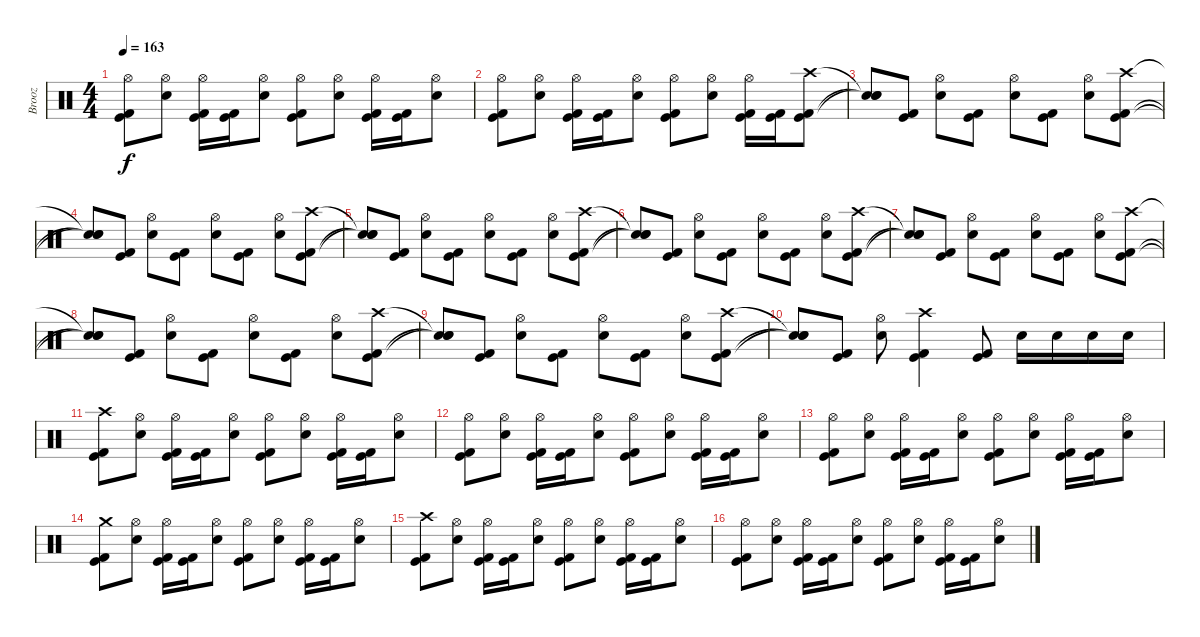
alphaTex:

\track ("Brooz" "Brooz") {instrument percussion}
\staff {score}
\articulation defaults
\ts (4 4)
\tempo 163
\clef neutral
\ks c
("Kick (hit) 2" "Kick (hit)" "Hi-Hat (open)").8{dy f} ("Snare (hit) 2" "Hi-Hat (open)").8 ("Hi-Hat (open)" "Kick (hit) 2" "Kick (hit)").16 ("Kick (hit) 2" "Kick (hit)").16 ("Hi-Hat (open)" "Snare (hit) 2").8 ("Kick (hit) 2" "Kick (hit)" "Hi-Hat (open)").8 ("Snare (hit) 2" "Hi-Hat (open)").8 ("Hi-Hat (open)" "Kick (hit) 2" "Kick (hit)").16 ("Kick (hit) 2" "Kick (hit)").16 ("Hi-Hat (open)" "Snare (hit) 2").8 |
("Kick (hit) 2" "Kick (hit)" "Hi-Hat (open)").8 ("Snare (hit) 2" "Hi-Hat (open)").8 ("Hi-Hat (open)" "Kick (hit) 2" "Kick (hit)").16 ("Kick (hit) 2" "Kick (hit)").16 ("Hi-Hat (open)" "Snare (hit) 2").8 ("Kick (hit) 2" "Kick (hit)" "Hi-Hat (open)").8 ("Snare (hit) 2" "Hi-Hat (open)").8 ("Hi-Hat (open)" "Kick (hit) 2" "Kick (hit)").16 ("Kick (hit) 2" "Kick (hit)").16 ("Kick (hit) 2" "Kick (hit)" "Crash high (hit)").8 |
("Snare (hit)"{t} "Snare (hit)"{t} "Snare (hit)"{t}).8 ("Kick (hit) 2" "Kick (hit)").8 ("Snare (hit) 2" "Hi-Hat (open)").8 ("Kick (hit) 2" "Kick (hit)").8 ("Hi-Hat (open)" "Snare (hit) 2").8 ("Kick (hit) 2" "Kick (hit)").8 ("Snare (hit) 2" "Hi-Hat (open)").8 ("Kick (hit) 2" "Kick (hit)" "Crash high (hit)").8 |
("Snare (hit)"{t} "Snare (hit)"{t} "Snare (hit)"{t}).8 ("Kick (hit) 2" "Kick (hit)").8 ("Snare (hit) 2" "Hi-Hat (open)").8 ("Kick (hit) 2" "Kick (hit)").8 ("Hi-Hat (open)" "Snare (hit) 2").8 ("Kick (hit) 2" "Kick (hit)").8 ("Snare (hit) 2" "Hi-Hat (open)").8 ("Kick (hit) 2" "Kick (hit)" "Crash high (hit)").8 |
("Snare (hit)"{t} "Snare (hit)"{t} "Snare (hit)"{t}).8 ("Kick (hit) 2" "Kick (hit)").8 ("Snare (hit) 2" "Hi-Hat (open)").8 ("Kick (hit) 2" "Kick (hit)").8 ("Hi-Hat (open)" "Snare (hit) 2").8 ("Kick (hit) 2" "Kick (hit)").8 ("Snare (hit) 2" "Hi-Hat (open)").8 ("Kick (hit) 2" "Kick (hit)" "Crash high (hit)").8 |
("Snare (hit)"{t} "Snare (hit)"{t} "Snare (hit)"{t}).8 ("Kick (hit) 2" "Kick (hit)").8 ("Snare (hit) 2" "Hi-Hat (open)").8 ("Kick (hit) 2" "Kick (hit)").8 ("Hi-Hat (open)" "Snare (hit) 2").8 ("Kick (hit) 2" "Kick (hit)").8 ("Snare (hit) 2" "Hi-Hat (open)").8 ("Kick (hit) 2" "Kick (hit)" "Crash high (hit)").8 |
("Snare (hit)"{t} "Snare (hit)"{t} "Snare (hit)"{t}).8 ("Kick (hit) 2" "Kick (hit)").8 ("Snare (hit) 2" "Hi-Hat (open)").8 ("Kick (hit) 2" "Kick (hit)").8 ("Hi-Hat (open)" "Snare (hit) 2").8 ("Kick (hit) 2" "Kick (hit)").8 ("Snare (hit) 2" "Hi-Hat (open)").8 ("Kick (hit) 2" "Kick (hit)" "Crash high (hit)").8 |
("Snare (hit)"{t} "Snare (hit)"{t} "Snare (hit)"{t}).8 ("Kick (hit) 2" "Kick (hit)").8 ("Snare (hit) 2" "Hi-Hat (open)").8 ("Kick (hit) 2" "Kick (hit)").8 ("Hi-Hat (open)" "Snare (hit) 2").8 ("Kick (hit) 2" "Kick (hit)").8 ("Snare (hit) 2" "Hi-Hat (open)").8 ("Kick (hit) 2" "Kick (hit)" "Crash high (hit)").8 |
("Snare (hit)"{t} "Snare (hit)"{t} "Snare (hit)"{t}).8 ("Kick (hit) 2" "Kick (hit)").8 ("Snare (hit) 2" "Hi-Hat (open)").8 ("Kick (hit) 2" "Kick (hit)").8 ("Hi-Hat (open)" "Snare (hit) 2").8 ("Kick (hit) 2" "Kick (hit)").8 ("Snare (hit) 2" "Hi-Hat (open)").8 ("Kick (hit) 2" "Kick (hit)" "Crash high (hit)").8 |
("Snare (hit)"{t} "Snare (hit)"{t} "Snare (hit)"{t}).8 ("Kick (hit) 2" "Kick (hit)").8 ("Snare (hit) 2" "Hi-Hat (open)").8 ("Kick (hit) 2" "Kick (hit)" "Crash high (hit)").4 ("Kick (hit) 2" "Kick (hit)").8 "Snare (hit) 2".16 "Snare (hit) 2".16 "Snare (hit) 2".16 "Snare (hit) 2".16 |
("Kick (hit) 2" "Kick (hit)" "Crash high (hit)").8 ("Snare (hit) 2" "Hi-Hat (open)").8 ("Hi-Hat (open)" "Kick (hit) 2" "Kick (hit)").16 ("Kick (hit) 2" "Kick (hit)").16 ("Hi-Hat (open)" "Snare (hit) 2").8 ("Kick (hit) 2" "Kick (hit)" "Hi-Hat (open)").8 ("Snare (hit) 2" "Hi-Hat (open)").8 ("Hi-Hat (open)" "Kick (hit) 2" "Kick (hit)").16 ("Kick (hit) 2" "Kick (hit)").16 ("Hi-Hat (open)" "Snare (hit) 2").8 |
("Kick (hit) 2" "Kick (hit)" "Hi-Hat (open)").8 ("Snare (hit) 2" "Hi-Hat (open)").8 ("Hi-Hat (open)" "Kick (hit) 2" "Kick (hit)").16 ("Kick (hit) 2" "Kick (hit)").16 ("Hi-Hat (open)" "Snare (hit) 2").8 ("Kick (hit) 2" "Kick (hit)" "Hi-Hat (open)").8 ("Snare (hit) 2" "Hi-Hat (open)").8 ("Hi-Hat (open)" "Kick (hit) 2" "Kick (hit)").16 ("Kick (hit) 2" "Kick (hit)").16 ("Hi-Hat (open)" "Snare (hit) 2").8 |
("Kick (hit) 2" "Kick (hit)" "Hi-Hat (open)").8 ("Snare (hit) 2" "Hi-Hat (open)").8 ("Hi-Hat (open)" "Kick (hit) 2" "Kick (hit)").16 ("Kick (hit) 2" "Kick (hit)").16 ("Hi-Hat (open)" "Snare (hit) 2").8 ("Kick (hit) 2" "Kick (hit)" "Hi-Hat (open)").8 ("Snare (hit) 2" "Hi-Hat (open)").8 ("Hi-Hat (open)" "Kick (hit) 2" "Kick (hit)").16 ("Kick (hit) 2" "Kick (hit)").16 ("Hi-Hat (open)" "Snare (hit) 2").8 |
("Kick (hit) 2" "Kick (hit)" "Crash medium (hit)").8 ("Snare (hit) 2" "Hi-Hat (open)").8 ("Hi-Hat (open)" "Kick (hit) 2" "Kick (hit)").16 ("Kick (hit) 2" "Kick (hit)").16 ("Hi-Hat (open)" "Snare (hit) 2").8 ("Kick (hit) 2" "Kick (hit)" "Hi-Hat (open)").8 ("Snare (hit) 2" "Hi-Hat (open)").8 ("Hi-Hat (open)" "Kick (hit) 2" "Kick (hit)").16 ("Kick (hit) 2" "Kick (hit)").16 ("Hi-Hat (open)" "Snare (hit) 2").8 |
("Kick (hit) 2" "Kick (hit)" "Crash high (hit)").8 ("Snare (hit) 2" "Hi-Hat (open)").8 ("Hi-Hat (open)" "Kick (hit) 2" "Kick (hit)").16 ("Kick (hit) 2" "Kick (hit)").16 ("Hi-Hat (open)" "Snare (hit) 2").8 ("Kick (hit) 2" "Kick (hit)" "Hi-Hat (open)").8 ("Snare (hit) 2" "Hi-Hat (open)").8 ("Hi-Hat (open)" "Kick (hit) 2" "Kick (hit)").16 ("Kick (hit) 2" "Kick (hit)").16 ("Hi-Hat (open)" "Snare (hit) 2").8 |
("Kick (hit) 2" "Kick (hit)" "Hi-Hat (open)").8 ("Snare (hit) 2" "Hi-Hat (open)").8 ("Hi-Hat (open)" "Kick (hit) 2" "Kick (hit)").16 ("Kick (hit) 2" "Kick (hit)").16 ("Hi-Hat (open)" "Snare (hit) 2").8 ("Kick (hit) 2" "Kick (hit)" "Hi-Hat (open)").8 ("Snare (hit) 2" "Hi-Hat (open)").8 ("Hi-Hat (open)" "Kick (hit) 2" "Kick (hit)").16 ("Kick (hit) 2" "Kick (hit)").16 ("Hi-Hat (open)" "Snare (hit) 2").8
